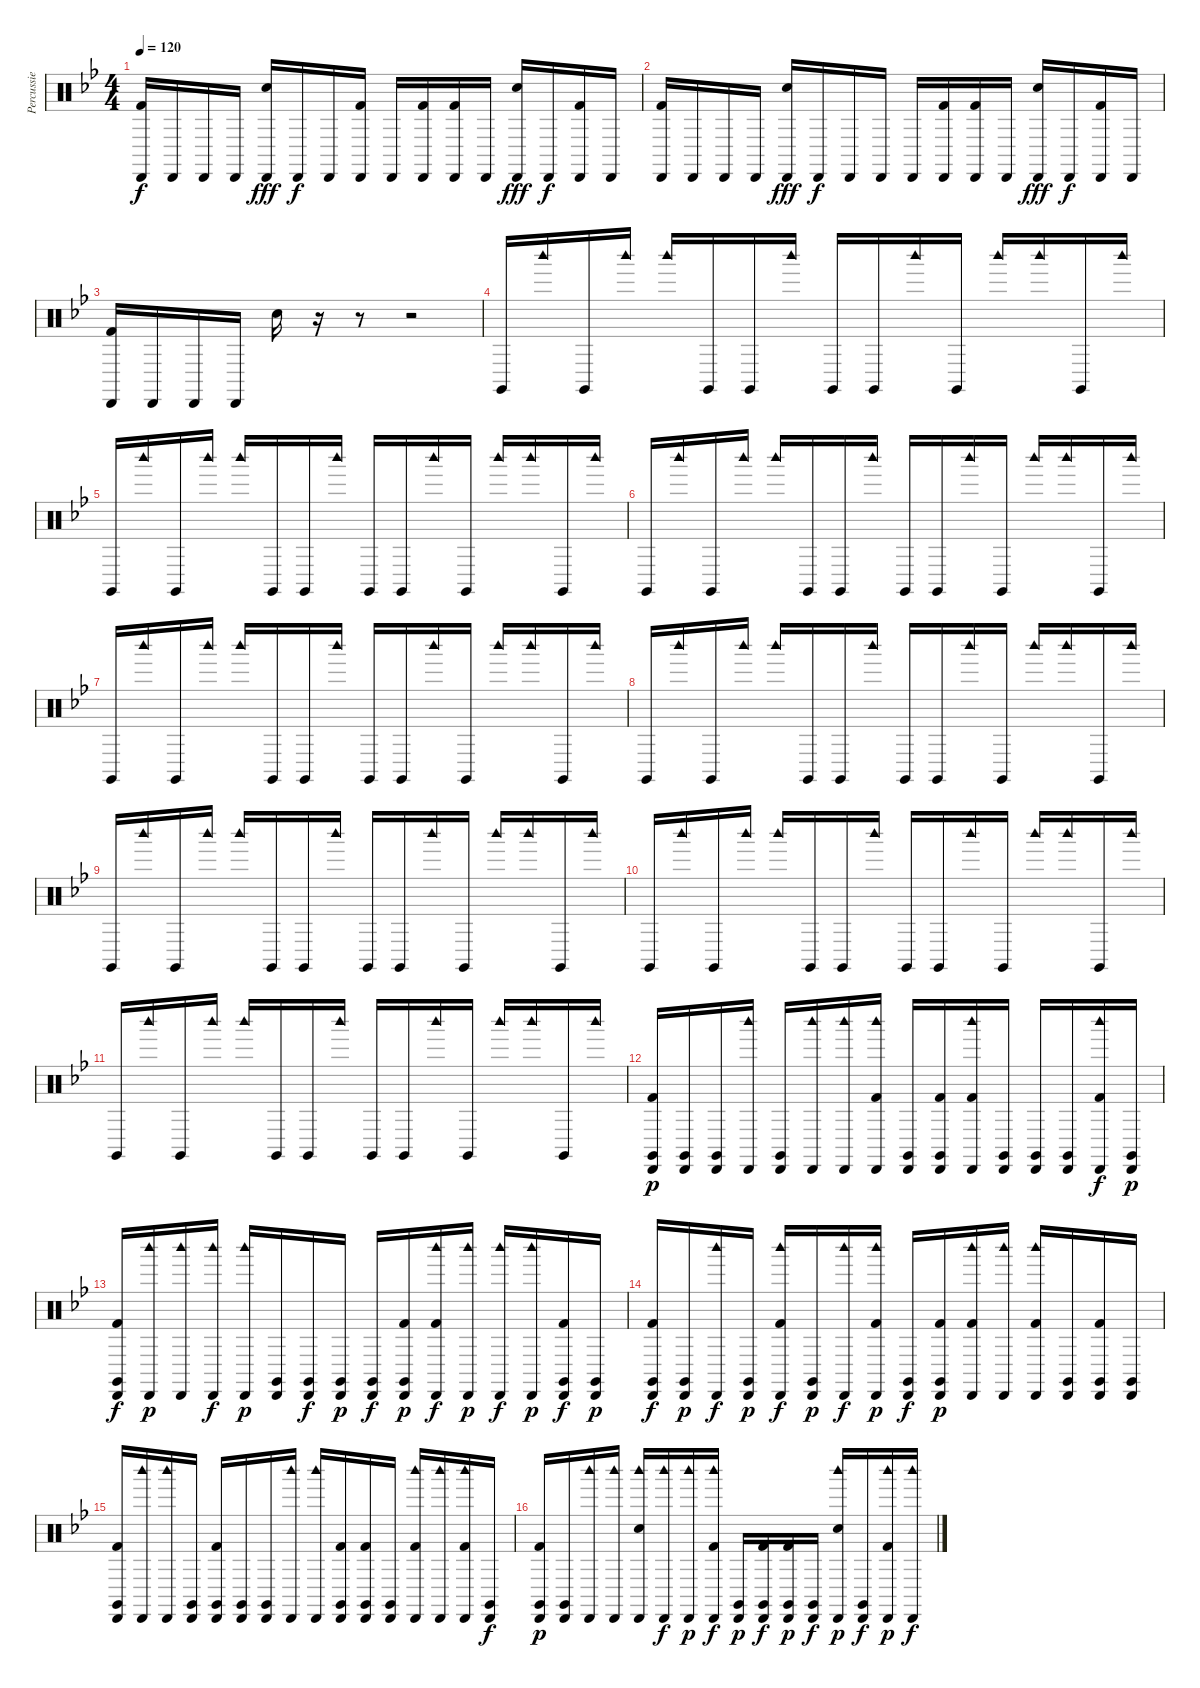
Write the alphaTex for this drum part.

\track ("Percussie" "Percussie") {instrument percussion}
\staff {score}
\articulation defaults
\ts (4 4)
\tempo 120
\clef neutral
\ks bb
("Cabasa (hit)" "Kick (hit) 2").16{dy f} "Cabasa (hit)".16 "Cabasa (hit)".16 "Cabasa (hit)".16 ("Cabasa (hit)" "Snare (hit) 2").16{dy fff} "Cabasa (hit)".16{dy f} "Cabasa (hit)".16 ("Cabasa (hit)" "Kick (hit) 2").16 "Cabasa (hit)".16 ("Cabasa (hit)" "Kick (hit) 2").16 ("Cabasa (hit)" "Kick (hit) 2").16 "Cabasa (hit)".16 ("Cabasa (hit)" "Snare (hit) 2").16{dy fff} "Cabasa (hit)".16{dy f} ("Cabasa (hit)" "Kick (hit) 2").16 "Cabasa (hit)".16 |
("Cabasa (hit)" "Kick (hit) 2").16 "Cabasa (hit)".16 "Cabasa (hit)".16 "Cabasa (hit)".16 ("Cabasa (hit)" "Snare (hit) 2").16{dy fff} "Cabasa (hit)".16{dy f} "Cabasa (hit)".16 "Cabasa (hit)".16 "Cabasa (hit)".16 ("Cabasa (hit)" "Kick (hit) 2").16 ("Cabasa (hit)" "Kick (hit) 2").16 "Cabasa (hit)".16 ("Cabasa (hit)" "Snare (hit) 2").16{dy fff} "Cabasa (hit)".16{dy f} ("Cabasa (hit)" "Kick (hit) 2").16 "Cabasa (hit)".16 |
("Cabasa (hit)" "Kick (hit) 2").16 "Cabasa (hit)".16 "Cabasa (hit)".16 "Cabasa (hit)".16 "Snare (hit) 2".16 r.16 r.8 r.2 |
"Claves (hit)".16{volume 8} "Woodblock high (hit)".16 "Claves (hit)".16 "Woodblock high (hit)".16 "Woodblock high (hit)".16 "Claves (hit)".16 "Claves (hit)".16 "Woodblock high (hit)".16 "Claves (hit)".16 "Claves (hit)".16 "Woodblock high (hit)".16 "Claves (hit)".16 "Woodblock high (hit)".16 "Woodblock high (hit)".16 "Claves (hit)".16 "Woodblock high (hit)".16 |
"Claves (hit)".16 "Woodblock high (hit)".16 "Claves (hit)".16 "Woodblock high (hit)".16 "Woodblock high (hit)".16 "Claves (hit)".16 "Claves (hit)".16 "Woodblock high (hit)".16 "Claves (hit)".16 "Claves (hit)".16 "Woodblock high (hit)".16 "Claves (hit)".16 "Woodblock high (hit)".16 "Woodblock high (hit)".16 "Claves (hit)".16 "Woodblock high (hit)".16 |
"Claves (hit)".16 "Woodblock high (hit)".16 "Claves (hit)".16 "Woodblock high (hit)".16 "Woodblock high (hit)".16 "Claves (hit)".16 "Claves (hit)".16 "Woodblock high (hit)".16 "Claves (hit)".16 "Claves (hit)".16 "Woodblock high (hit)".16 "Claves (hit)".16 "Woodblock high (hit)".16 "Woodblock high (hit)".16 "Claves (hit)".16 "Woodblock high (hit)".16 |
"Claves (hit)".16 "Woodblock high (hit)".16 "Claves (hit)".16 "Woodblock high (hit)".16 "Woodblock high (hit)".16 "Claves (hit)".16 "Claves (hit)".16 "Woodblock high (hit)".16 "Claves (hit)".16 "Claves (hit)".16 "Woodblock high (hit)".16 "Claves (hit)".16 "Woodblock high (hit)".16 "Woodblock high (hit)".16 "Claves (hit)".16 "Woodblock high (hit)".16 |
"Claves (hit)".16 "Woodblock high (hit)".16 "Claves (hit)".16 "Woodblock high (hit)".16 "Woodblock high (hit)".16 "Claves (hit)".16 "Claves (hit)".16 "Woodblock high (hit)".16 "Claves (hit)".16 "Claves (hit)".16 "Woodblock high (hit)".16 "Claves (hit)".16 "Woodblock high (hit)".16 "Woodblock high (hit)".16 "Claves (hit)".16 "Woodblock high (hit)".16 |
"Claves (hit)".16 "Woodblock high (hit)".16 "Claves (hit)".16 "Woodblock high (hit)".16 "Woodblock high (hit)".16 "Claves (hit)".16 "Claves (hit)".16 "Woodblock high (hit)".16 "Claves (hit)".16 "Claves (hit)".16 "Woodblock high (hit)".16 "Claves (hit)".16 "Woodblock high (hit)".16 "Woodblock high (hit)".16 "Claves (hit)".16 "Woodblock high (hit)".16 |
"Claves (hit)".16 "Woodblock high (hit)".16 "Claves (hit)".16 "Woodblock high (hit)".16 "Woodblock high (hit)".16 "Claves (hit)".16 "Claves (hit)".16 "Woodblock high (hit)".16 "Claves (hit)".16 "Claves (hit)".16 "Woodblock high (hit)".16 "Claves (hit)".16 "Woodblock high (hit)".16 "Woodblock high (hit)".16 "Claves (hit)".16 "Woodblock high (hit)".16 |
"Claves (hit)".16 "Woodblock high (hit)".16 "Claves (hit)".16 "Woodblock high (hit)".16 "Woodblock high (hit)".16 "Claves (hit)".16 "Claves (hit)".16 "Woodblock high (hit)".16 "Claves (hit)".16 "Claves (hit)".16 "Woodblock high (hit)".16 "Claves (hit)".16 "Woodblock high (hit)".16 "Woodblock high (hit)".16 "Claves (hit)".16 "Woodblock high (hit)".16 |
("Cabasa (hit)" "Kick (hit) 2" "Claves (hit)").16{dy p volume 13} ("Cabasa (hit)" "Claves (hit)").16 ("Cabasa (hit)" "Claves (hit)").16 ("Cabasa (hit)" "Woodblock high (hit)").16 ("Cabasa (hit)" "Claves (hit)").16 ("Cabasa (hit)" "Woodblock high (hit)").16 ("Cabasa (hit)" "Woodblock high (hit)").16 ("Cabasa (hit)" "Kick (hit) 2" "Woodblock high (hit)").16 ("Cabasa (hit)" "Claves (hit)").16 ("Cabasa (hit)" "Kick (hit) 2" "Claves (hit)").16 ("Cabasa (hit)" "Kick (hit) 2" "Woodblock high (hit)").16 ("Cabasa (hit)" "Claves (hit)").16 ("Cabasa (hit)" "Claves (hit)").16 ("Cabasa (hit)" "Claves (hit)").16 ("Cabasa (hit)" "Kick (hit) 2" "Woodblock high (hit)").16{dy f} ("Cabasa (hit)" "Claves (hit)").16{dy p} |
("Cabasa (hit)" "Kick (hit) 2" "Claves (hit)").16{dy f} ("Cabasa (hit)" "Woodblock high (hit)").16{dy p} ("Cabasa (hit)" "Woodblock high (hit)").16 ("Cabasa (hit)" "Woodblock high (hit)").16{dy f} ("Cabasa (hit)" "Woodblock high (hit)").16{dy p} ("Cabasa (hit)" "Claves (hit)").16 ("Cabasa (hit)" "Claves (hit)").16{dy f} ("Cabasa (hit)" "Claves (hit)").16{dy p} ("Cabasa (hit)" "Claves (hit)").16{dy f} ("Cabasa (hit)" "Kick (hit) 2" "Claves (hit)").16{dy p} ("Cabasa (hit)" "Kick (hit) 2" "Woodblock high (hit)").16{dy f} ("Cabasa (hit)" "Woodblock high (hit)").16{dy p} ("Cabasa (hit)" "Woodblock high (hit)").16{dy f} ("Cabasa (hit)" "Woodblock high (hit)").16{dy p} ("Cabasa (hit)" "Kick (hit) 2" "Claves (hit)").16{dy f} ("Cabasa (hit)" "Claves (hit)").16{dy p} |
("Cabasa (hit)" "Kick (hit) 2" "Claves (hit)").16{dy f} ("Cabasa (hit)" "Claves (hit)").16{dy p} ("Cabasa (hit)" "Woodblock high (hit)").16{dy f} ("Cabasa (hit)" "Claves (hit)").16{dy p} ("Cabasa (hit)" "Kick (hit) 2" "Woodblock high (hit)").16{dy f} ("Cabasa (hit)" "Claves (hit)").16{dy p} ("Cabasa (hit)" "Woodblock high (hit)").16{dy f} ("Cabasa (hit)" "Kick (hit) 2" "Woodblock high (hit)").16{dy p} ("Cabasa (hit)" "Claves (hit)").16{dy f} ("Cabasa (hit)" "Kick (hit) 2" "Claves (hit)").16{dy p} ("Cabasa (hit)" "Kick (hit) 2" "Woodblock high (hit)").16 ("Cabasa (hit)" "Woodblock high (hit)").16 ("Cabasa (hit)" "Kick (hit) 2" "Woodblock high (hit)").16 ("Cabasa (hit)" "Claves (hit)").16 ("Cabasa (hit)" "Kick (hit) 2" "Claves (hit)").16 ("Cabasa (hit)" "Claves (hit)").16 |
("Cabasa (hit)" "Kick (hit) 2" "Claves (hit)").16 ("Cabasa (hit)" "Woodblock high (hit)").16 ("Cabasa (hit)" "Woodblock high (hit)").16 ("Cabasa (hit)" "Claves (hit)").16 ("Cabasa (hit)" "Kick (hit) 2" "Claves (hit)").16 ("Cabasa (hit)" "Claves (hit)").16 ("Cabasa (hit)" "Claves (hit)").16 ("Cabasa (hit)" "Woodblock high (hit)").16 ("Cabasa (hit)" "Woodblock high (hit)").16 ("Cabasa (hit)" "Kick (hit) 2" "Claves (hit)").16 ("Cabasa (hit)" "Kick (hit) 2" "Claves (hit)").16 ("Cabasa (hit)" "Claves (hit)").16 ("Cabasa (hit)" "Kick (hit) 2" "Woodblock high (hit)").16 ("Cabasa (hit)" "Woodblock high (hit)").16 ("Cabasa (hit)" "Kick (hit) 2" "Woodblock high (hit)").16 ("Cabasa (hit)" "Claves (hit)").16{dy f} |
("Cabasa (hit)" "Kick (hit) 2" "Claves (hit)").16{dy p} ("Cabasa (hit)" "Claves (hit)").16 ("Cabasa (hit)" "Woodblock high (hit)").16 ("Cabasa (hit)" "Woodblock high (hit)").16 ("Cabasa (hit)" "Snare (hit) 2" "Woodblock high (hit)").16 ("Cabasa (hit)" "Woodblock high (hit)").16{dy f} ("Cabasa (hit)" "Woodblock high (hit)").16{dy p} ("Cabasa (hit)" "Kick (hit) 2" "Woodblock high (hit)").16{dy f} ("Cabasa (hit)" "Claves (hit)").16{dy p} ("Cabasa (hit)" "Kick (hit) 2" "Claves (hit)").16{dy f} ("Cabasa (hit)" "Kick (hit) 2" "Claves (hit)").16{dy p} ("Cabasa (hit)" "Claves (hit)").16{dy f} ("Cabasa (hit)" "Snare (hit) 2" "Woodblock high (hit)").16{dy p} ("Cabasa (hit)" "Claves (hit)").16{dy f} ("Cabasa (hit)" "Kick (hit) 2" "Woodblock high (hit)").16{dy p} ("Cabasa (hit)" "Woodblock high (hit)").16{dy f}
